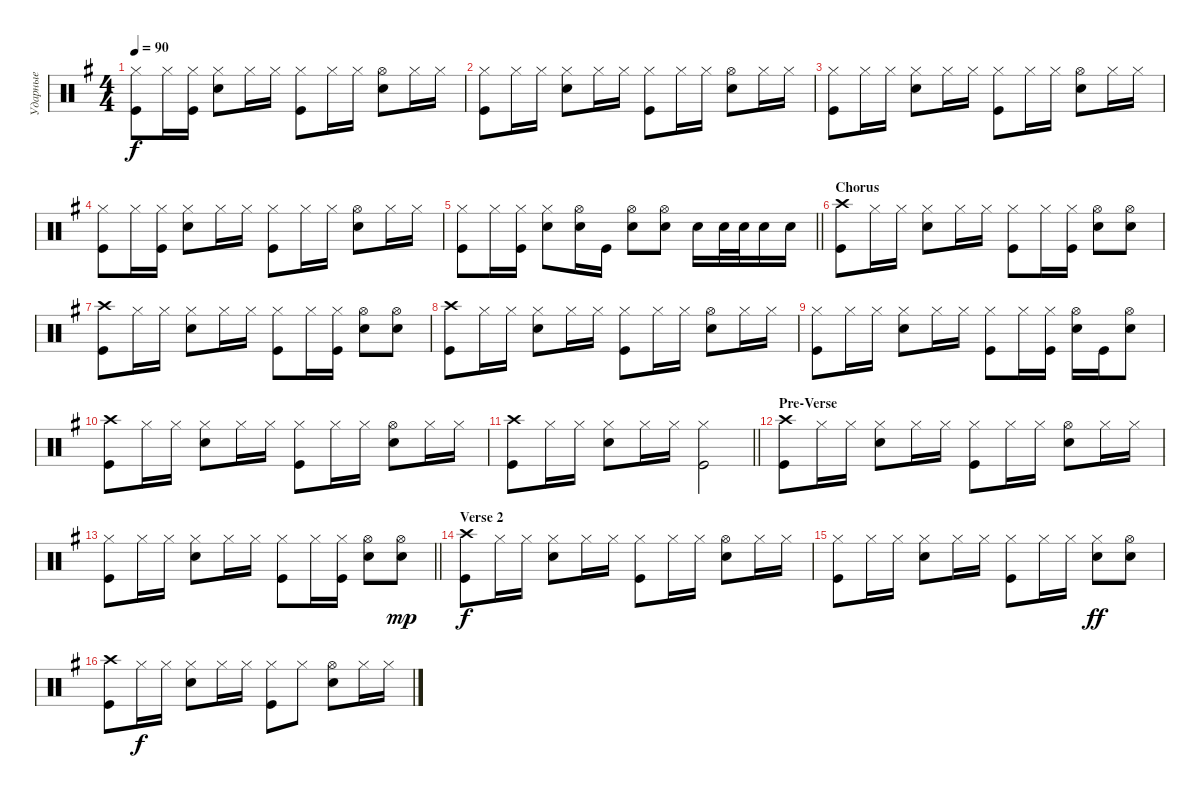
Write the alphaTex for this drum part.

\track ("Ударные" "Ударные") {instrument percussion}
\staff {score}
\articulation defaults
\ts (4 4)
\tempo 90
\clef neutral
\ks eminor
("Hi-Hat (closed)" "Kick (hit)").8{dy f} "Hi-Hat (closed)".16 ("Hi-Hat (closed)" "Kick (hit)").16 ("Hi-Hat (closed)" "Snare (hit) 2").8 "Hi-Hat (closed)".16 "Hi-Hat (closed)".16 ("Hi-Hat (closed)" "Kick (hit)").8 "Hi-Hat (closed)".16 "Hi-Hat (closed)".16 ("Snare (hit) 2" "Hi-Hat (open)").8 "Hi-Hat (closed)".16 "Hi-Hat (closed)".16 |
("Hi-Hat (closed)" "Kick (hit)").8 "Hi-Hat (closed)".16 "Hi-Hat (closed)".16 ("Hi-Hat (closed)" "Snare (hit) 2").8 "Hi-Hat (closed)".16 "Hi-Hat (closed)".16 ("Hi-Hat (closed)" "Kick (hit)").8 "Hi-Hat (closed)".16 "Hi-Hat (closed)".16 ("Snare (hit) 2" "Hi-Hat (open)").8 "Hi-Hat (closed)".16 "Hi-Hat (closed)".16 |
("Hi-Hat (closed)" "Kick (hit)").8 "Hi-Hat (closed)".16 "Hi-Hat (closed)".16 ("Hi-Hat (closed)" "Snare (hit) 2").8 "Hi-Hat (closed)".16 "Hi-Hat (closed)".16 ("Hi-Hat (closed)" "Kick (hit)").8 "Hi-Hat (closed)".16 "Hi-Hat (closed)".16 ("Snare (hit) 2" "Hi-Hat (open)").8 "Hi-Hat (closed)".16 "Hi-Hat (closed)".16 |
("Hi-Hat (closed)" "Kick (hit)").8 "Hi-Hat (closed)".16 ("Hi-Hat (closed)" "Kick (hit)").16 ("Hi-Hat (closed)" "Snare (hit) 2").8 "Hi-Hat (closed)".16 "Hi-Hat (closed)".16 ("Hi-Hat (closed)" "Kick (hit)").8 "Hi-Hat (closed)".16 "Hi-Hat (closed)".16 ("Snare (hit) 2" "Hi-Hat (open)").8 "Hi-Hat (closed)".16 "Hi-Hat (closed)".16 |
\barLineRight lightlight
("Hi-Hat (closed)" "Kick (hit)").8 "Hi-Hat (closed)".16 ("Hi-Hat (closed)" "Kick (hit)").16 ("Hi-Hat (closed)" "Snare (hit) 2").8 ("Snare (hit) 2" "Hi-Hat (open)").16 "Kick (hit)".16 ("Hi-Hat (open)" "Snare (hit) 2").8 ("Hi-Hat (open)" "Snare (hit) 2").8 "Snare (hit) 2".16 "Snare (hit) 2".32 "Snare (hit) 2".32 "Snare (hit) 2".16 "Snare (hit) 2".16 |
\section ("" "Chorus")
("Crash high (hit)" "Kick (hit)").8 "Hi-Hat (closed)".16 "Hi-Hat (closed)".16 ("Hi-Hat (closed)" "Snare (hit) 2").8 "Hi-Hat (closed)".16 "Hi-Hat (closed)".16 ("Hi-Hat (closed)" "Kick (hit)").8 "Hi-Hat (closed)".16 ("Hi-Hat (closed)" "Kick (hit)").16 ("Snare (hit) 2" "Hi-Hat (open)").8 ("Hi-Hat (open)" "Snare (hit) 2").8 |
("Crash high (hit)" "Kick (hit)").8 "Hi-Hat (closed)".16 "Hi-Hat (closed)".16 ("Hi-Hat (closed)" "Snare (hit) 2").8 "Hi-Hat (closed)".16 "Hi-Hat (closed)".16 ("Hi-Hat (closed)" "Kick (hit)").8 "Hi-Hat (closed)".16 ("Hi-Hat (closed)" "Kick (hit)").16 ("Snare (hit) 2" "Hi-Hat (open)").8 ("Hi-Hat (open)" "Snare (hit) 2").8 |
("Crash high (hit)" "Kick (hit)").8 "Hi-Hat (closed)".16 "Hi-Hat (closed)".16 ("Hi-Hat (closed)" "Snare (hit) 2").8 "Hi-Hat (closed)".16 "Hi-Hat (closed)".16 ("Hi-Hat (closed)" "Kick (hit)").8 "Hi-Hat (closed)".16 "Hi-Hat (closed)".16 ("Snare (hit) 2" "Hi-Hat (open)").8 "Hi-Hat (closed)".16 "Hi-Hat (closed)".16 |
("Hi-Hat (closed)" "Kick (hit)").8 "Hi-Hat (closed)".16 "Hi-Hat (closed)".16 ("Hi-Hat (closed)" "Snare (hit) 2").8 "Hi-Hat (closed)".16 "Hi-Hat (closed)".16 ("Hi-Hat (closed)" "Kick (hit)").8 "Hi-Hat (closed)".16 ("Hi-Hat (closed)" "Kick (hit)").16 ("Snare (hit) 2" "Hi-Hat (open)").16 "Kick (hit)".16 ("Snare (hit) 2" "Hi-Hat (open)").8 |
("Crash high (hit)" "Kick (hit)").8 "Hi-Hat (closed)".16 "Hi-Hat (closed)".16 ("Hi-Hat (closed)" "Snare (hit) 2").8 "Hi-Hat (closed)".16 "Hi-Hat (closed)".16 ("Hi-Hat (closed)" "Kick (hit)").8 "Hi-Hat (closed)".16 "Hi-Hat (closed)".16 ("Snare (hit) 2" "Hi-Hat (open)").8 "Hi-Hat (closed)".16 "Hi-Hat (closed)".16 |
\barLineRight lightlight
("Crash high (hit)" "Kick (hit)").8 "Hi-Hat (closed)".16 "Hi-Hat (closed)".16 ("Hi-Hat (closed)" "Snare (hit) 2").8 "Hi-Hat (closed)".16 "Hi-Hat (closed)".16 ("Hi-Hat (closed)" "Kick (hit)").2 |
\section ("" "Pre-Verse")
("Crash high (hit)" "Kick (hit)").8 "Hi-Hat (closed)".16 "Hi-Hat (closed)".16 ("Hi-Hat (closed)" "Snare (hit) 2").8 "Hi-Hat (closed)".16 "Hi-Hat (closed)".16 ("Hi-Hat (closed)" "Kick (hit)").8 "Hi-Hat (closed)".16 "Hi-Hat (closed)".16 ("Snare (hit) 2" "Hi-Hat (open)").8 "Hi-Hat (closed)".16 "Hi-Hat (closed)".16 |
\barLineRight lightlight
("Hi-Hat (closed)" "Kick (hit)").8 "Hi-Hat (closed)".16 "Hi-Hat (closed)".16 ("Hi-Hat (closed)" "Snare (hit) 2").8 "Hi-Hat (closed)".16 "Hi-Hat (closed)".16 ("Hi-Hat (closed)" "Kick (hit)").8 "Hi-Hat (closed)".16 ("Hi-Hat (closed)" "Kick (hit)").16 ("Snare (hit) 2" "Hi-Hat (open)").8 ("Snare (hit) 2" "Hi-Hat (open)").8{dy mp} |
\section ("" "Verse 2")
("Crash high (hit)" "Kick (hit)").8{dy f} "Hi-Hat (closed)".16 "Hi-Hat (closed)".16 ("Hi-Hat (closed)" "Snare (hit) 2").8 "Hi-Hat (closed)".16 "Hi-Hat (closed)".16 ("Hi-Hat (closed)" "Kick (hit)").8 "Hi-Hat (closed)".16 "Hi-Hat (closed)".16 ("Snare (hit) 2" "Hi-Hat (open)").8 "Hi-Hat (closed)".16 "Hi-Hat (closed)".16 |
("Hi-Hat (closed)" "Kick (hit)").8 "Hi-Hat (closed)".16 "Hi-Hat (closed)".16 ("Hi-Hat (closed)" "Snare (hit) 2").8 "Hi-Hat (closed)".16 "Hi-Hat (closed)".16 ("Hi-Hat (closed)" "Kick (hit)").8 "Hi-Hat (closed)".16 "Hi-Hat (closed)".16 ("Snare (hit) 2" "Hi-Hat (closed)").8{dy ff} ("Snare (hit) 2" "Hi-Hat (open)").8 |
("Crash high (hit)" "Kick (hit)").8 "Hi-Hat (closed)".16{dy f} "Hi-Hat (closed)".16 ("Hi-Hat (closed)" "Snare (hit) 2").8 "Hi-Hat (closed)".16 "Hi-Hat (closed)".16 ("Hi-Hat (closed)" "Kick (hit)").8 "Hi-Hat (closed)".8 ("Snare (hit) 2" "Hi-Hat (open)").8 "Hi-Hat (closed)".16 "Hi-Hat (closed)".16
